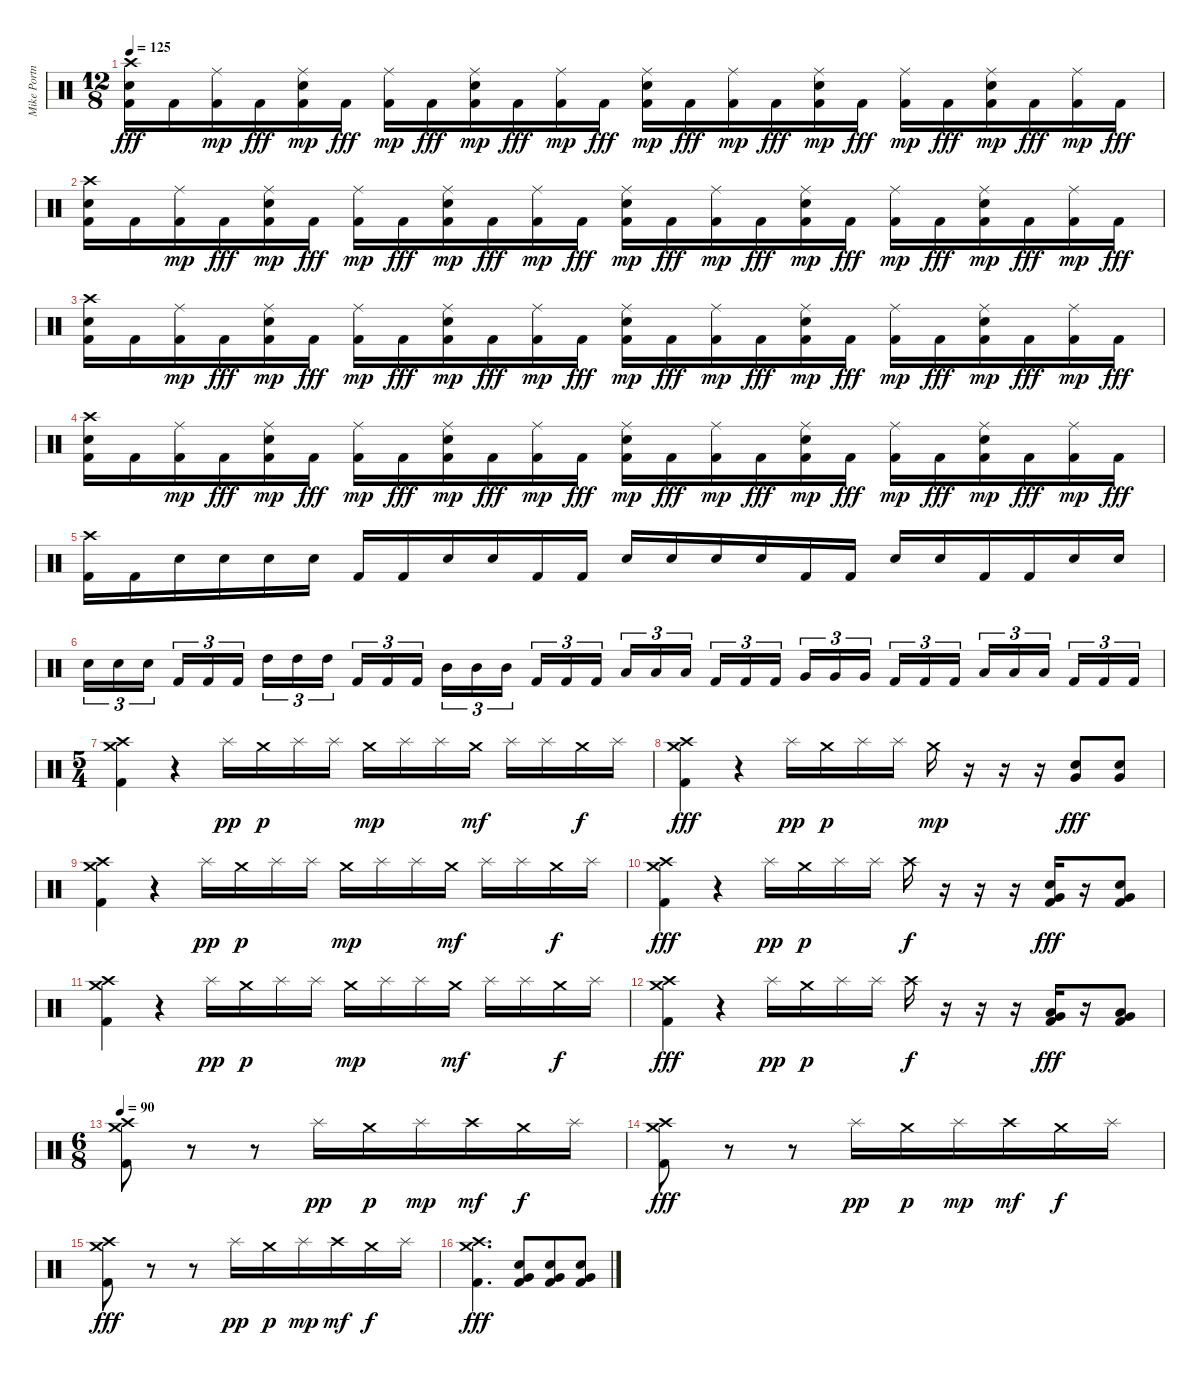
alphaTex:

\track ("Mike Portnoy" "Mike Portn") {instrument percussion}
\staff {score}
\articulation defaults
\ts (12 8)
\tempo 125
\clef neutral
\ks c
("Kick (hit) 2" "Electric Snare (hit)" "Crash high (hit)").16{dy fff} "Kick (hit) 2".16 ("Kick (hit) 2" "Ride (middle)").16{dy mp} "Kick (hit) 2".16{dy fff} ("Kick (hit) 2" "Electric Snare (hit)" "Ride (middle)").16{dy mp} "Kick (hit) 2".16{dy fff} ("Kick (hit) 2" "Ride (middle)").16{dy mp} "Kick (hit) 2".16{dy fff} ("Kick (hit) 2" "Electric Snare (hit)" "Ride (middle)").16{dy mp} "Kick (hit) 2".16{dy fff} ("Kick (hit) 2" "Ride (middle)").16{dy mp} "Kick (hit) 2".16{dy fff} ("Kick (hit) 2" "Electric Snare (hit)" "Ride (middle)").16{dy mp} "Kick (hit) 2".16{dy fff} ("Kick (hit) 2" "Ride (middle)").16{dy mp} "Kick (hit) 2".16{dy fff} ("Kick (hit) 2" "Electric Snare (hit)" "Ride (middle)").16{dy mp} "Kick (hit) 2".16{dy fff} ("Kick (hit) 2" "Ride (middle)").16{dy mp} "Kick (hit) 2".16{dy fff} ("Kick (hit) 2" "Electric Snare (hit)" "Ride (middle)").16{dy mp} "Kick (hit) 2".16{dy fff} ("Kick (hit) 2" "Ride (middle)").16{dy mp} "Kick (hit) 2".16{dy fff} |
("Kick (hit) 2" "Electric Snare (hit)" "Crash high (hit)").16 "Kick (hit) 2".16 ("Kick (hit) 2" "Ride (middle)").16{dy mp} "Kick (hit) 2".16{dy fff} ("Kick (hit) 2" "Electric Snare (hit)" "Ride (middle)").16{dy mp} "Kick (hit) 2".16{dy fff} ("Kick (hit) 2" "Ride (middle)").16{dy mp} "Kick (hit) 2".16{dy fff} ("Kick (hit) 2" "Electric Snare (hit)" "Ride (middle)").16{dy mp} "Kick (hit) 2".16{dy fff} ("Kick (hit) 2" "Ride (middle)").16{dy mp} "Kick (hit) 2".16{dy fff} ("Kick (hit) 2" "Electric Snare (hit)" "Ride (middle)").16{dy mp} "Kick (hit) 2".16{dy fff} ("Kick (hit) 2" "Ride (middle)").16{dy mp} "Kick (hit) 2".16{dy fff} ("Kick (hit) 2" "Electric Snare (hit)" "Ride (middle)").16{dy mp} "Kick (hit) 2".16{dy fff} ("Kick (hit) 2" "Ride (middle)").16{dy mp} "Kick (hit) 2".16{dy fff} ("Kick (hit) 2" "Electric Snare (hit)" "Ride (middle)").16{dy mp} "Kick (hit) 2".16{dy fff} ("Kick (hit) 2" "Ride (middle)").16{dy mp} "Kick (hit) 2".16{dy fff} |
("Kick (hit) 2" "Electric Snare (hit)" "Crash high (hit)").16 "Kick (hit) 2".16 ("Kick (hit) 2" "Ride (middle)").16{dy mp} "Kick (hit) 2".16{dy fff} ("Kick (hit) 2" "Electric Snare (hit)" "Ride (middle)").16{dy mp} "Kick (hit) 2".16{dy fff} ("Kick (hit) 2" "Ride (middle)").16{dy mp} "Kick (hit) 2".16{dy fff} ("Kick (hit) 2" "Electric Snare (hit)" "Ride (middle)").16{dy mp} "Kick (hit) 2".16{dy fff} ("Kick (hit) 2" "Ride (middle)").16{dy mp} "Kick (hit) 2".16{dy fff} ("Kick (hit) 2" "Electric Snare (hit)" "Ride (middle)").16{dy mp} "Kick (hit) 2".16{dy fff} ("Kick (hit) 2" "Ride (middle)").16{dy mp} "Kick (hit) 2".16{dy fff} ("Kick (hit) 2" "Electric Snare (hit)" "Ride (middle)").16{dy mp} "Kick (hit) 2".16{dy fff} ("Kick (hit) 2" "Ride (middle)").16{dy mp} "Kick (hit) 2".16{dy fff} ("Kick (hit) 2" "Electric Snare (hit)" "Ride (middle)").16{dy mp} "Kick (hit) 2".16{dy fff} ("Kick (hit) 2" "Ride (middle)").16{dy mp} "Kick (hit) 2".16{dy fff} |
("Kick (hit) 2" "Electric Snare (hit)" "Crash high (hit)").16 "Kick (hit) 2".16 ("Kick (hit) 2" "Ride (middle)").16{dy mp} "Kick (hit) 2".16{dy fff} ("Kick (hit) 2" "Electric Snare (hit)" "Ride (middle)").16{dy mp} "Kick (hit) 2".16{dy fff} ("Kick (hit) 2" "Ride (middle)").16{dy mp} "Kick (hit) 2".16{dy fff} ("Kick (hit) 2" "Electric Snare (hit)" "Ride (middle)").16{dy mp} "Kick (hit) 2".16{dy fff} ("Kick (hit) 2" "Ride (middle)").16{dy mp} "Kick (hit) 2".16{dy fff} ("Kick (hit) 2" "Electric Snare (hit)" "Ride (middle)").16{dy mp} "Kick (hit) 2".16{dy fff} ("Kick (hit) 2" "Ride (middle)").16{dy mp} "Kick (hit) 2".16{dy fff} ("Kick (hit) 2" "Electric Snare (hit)" "Ride (middle)").16{dy mp} "Kick (hit) 2".16{dy fff} ("Kick (hit) 2" "Ride (middle)").16{dy mp} "Kick (hit) 2".16{dy fff} ("Kick (hit) 2" "Electric Snare (hit)" "Ride (middle)").16{dy mp} "Kick (hit) 2".16{dy fff} ("Kick (hit) 2" "Ride (middle)").16{dy mp} "Kick (hit) 2".16{dy fff} |
("Kick (hit) 2" "Crash high (hit)").16 "Kick (hit) 2".16 "Electric Snare (hit)".16 "Electric Snare (hit)".16 "Electric Snare (hit)".16 "Electric Snare (hit)".16 "Kick (hit) 2".16 "Kick (hit) 2".16 "Electric Snare (hit)".16 "Electric Snare (hit)".16 "Kick (hit) 2".16 "Kick (hit) 2".16 "Electric Snare (hit)".16 "Electric Snare (hit)".16 "Electric Snare (hit)".16 "Electric Snare (hit)".16 "Kick (hit) 2".16 "Kick (hit) 2".16 "Electric Snare (hit)".16 "Electric Snare (hit)".16 "Kick (hit) 2".16 "Kick (hit) 2".16 "Electric Snare (hit)".16 "Electric Snare (hit)".16 |
"Electric Snare (hit)".16{tu (3 2)} "Electric Snare (hit)".16{tu (3 2)} "Electric Snare (hit)".16{tu (3 2) beam splitsecondary} "Kick (hit) 2".16{tu (3 2)} "Kick (hit) 2".16{tu (3 2)} "Kick (hit) 2".16{tu (3 2) beam splitsecondary} "High Tom (hit)".16{tu (3 2)} "High Tom (hit)".16{tu (3 2)} "High Tom (hit)".16{tu (3 2)} "Kick (hit) 2".16{tu (3 2)} "Kick (hit) 2".16{tu (3 2)} "Kick (hit) 2".16{tu (3 2) beam splitsecondary} "Mid Tom (hit)".16{tu (3 2)} "Mid Tom (hit)".16{tu (3 2)} "Mid Tom (hit)".16{tu (3 2) beam splitsecondary} "Kick (hit) 2".16{tu (3 2)} "Kick (hit) 2".16{tu (3 2)} "Kick (hit) 2".16{tu (3 2)} "Low Tom (hit)".16{tu (3 2)} "Low Tom (hit)".16{tu (3 2)} "Low Tom (hit)".16{tu (3 2) beam splitsecondary} "Kick (hit) 2".16{tu (3 2)} "Kick (hit) 2".16{tu (3 2)} "Kick (hit) 2".16{tu (3 2) beam splitsecondary} "Very Low Tom (hit)".16{tu (3 2)} "Very Low Tom (hit)".16{tu (3 2)} "Very Low Tom (hit)".16{tu (3 2)} "Kick (hit) 2".16{tu (3 2)} "Kick (hit) 2".16{tu (3 2)} "Kick (hit) 2".16{tu (3 2) beam splitsecondary} "Low Floor Tom (hit)".16{tu (3 2)} "Low Floor Tom (hit)".16{tu (3 2)} "Low Floor Tom (hit)".16{tu (3 2) beam splitsecondary} "Kick (hit) 2".16{tu (3 2)} "Kick (hit) 2".16{tu (3 2)} "Kick (hit) 2".16{tu (3 2)} |
\ts (5 4)
("Kick (hit) 2" "Crash medium (hit)" "Crash high (hit)").4 r.4 "Splash (hit)".16{dy pp} "Crash medium (hit)".16{dy p} "Splash (hit)".16 "Splash (hit)".16 "Crash medium (hit)".16{dy mp} "Splash (hit)".16 "Splash (hit)".16 "Crash medium (hit)".16{dy mf} "Splash (hit)".16 "Splash (hit)".16 "Crash medium (hit)".16{dy f} "Splash (hit)".16 |
("Kick (hit) 2" "Crash medium (hit)" "Crash high (hit)").4{dy fff} r.4 "Splash (hit)".16{dy pp} "Crash medium (hit)".16{dy p} "Splash (hit)".16 "Splash (hit)".16 "Crash medium (hit)".16{dy mp} r.16 r.16 r.16 ("Electric Snare (hit)" "Very Low Tom (hit)").8{dy fff} ("Electric Snare (hit)" "Very Low Tom (hit)").8 |
("Kick (hit) 2" "Crash medium (hit)" "Crash high (hit)").4 r.4 "Splash (hit)".16{dy pp} "Crash medium (hit)".16{dy p} "Splash (hit)".16 "Splash (hit)".16 "Crash medium (hit)".16{dy mp} "Splash (hit)".16 "Splash (hit)".16 "Crash medium (hit)".16{dy mf} "Splash (hit)".16 "Splash (hit)".16 "Crash medium (hit)".16{dy f} "Splash (hit)".16 |
("Kick (hit) 2" "Crash medium (hit)" "Crash high (hit)").4{dy fff} r.4 "Splash (hit)".16{dy pp} "Crash medium (hit)".16{dy p} "Splash (hit)".16 "Splash (hit)".16 "Crash high (hit)".16{dy f} r.16 r.16 r.16 ("Electric Snare (hit)" "Very Low Tom (hit)" "Kick (hit) 2").16{dy fff} r.16 ("Electric Snare (hit)" "Very Low Tom (hit)" "Kick (hit) 2").8 |
("Kick (hit) 2" "Crash medium (hit)" "Crash high (hit)").4 r.4 "Splash (hit)".16{dy pp} "Crash medium (hit)".16{dy p} "Splash (hit)".16 "Splash (hit)".16 "Crash medium (hit)".16{dy mp} "Splash (hit)".16 "Splash (hit)".16 "Crash medium (hit)".16{dy mf} "Splash (hit)".16 "Splash (hit)".16 "Crash medium (hit)".16{dy f} "Splash (hit)".16 |
("Kick (hit) 2" "Crash medium (hit)" "Crash high (hit)").4{dy fff} r.4 "Splash (hit)".16{dy pp} "Crash medium (hit)".16{dy p} "Splash (hit)".16 "Splash (hit)".16 "Crash high (hit)".16{dy f} r.16 r.16 r.16 ("Low Floor Tom (hit)" "Very Low Tom (hit)" "Kick (hit) 2").16{dy fff} r.16 ("Low Floor Tom (hit)" "Very Low Tom (hit)" "Kick (hit) 2").8 |
\ts (6 8)
\tempo 90
("Kick (hit) 2" "Crash medium (hit)" "Crash high (hit)").8 r.8 r.8 "Splash (hit)".16{dy pp} "Crash medium (hit)".16{dy p} "Splash (hit)".16{dy mp} "Crash high (hit)".16{dy mf} "Crash medium (hit)".16{dy f} "Splash (hit)".16 |
("Kick (hit) 2" "Crash medium (hit)" "Crash high (hit)").8{dy fff} r.8 r.8 "Splash (hit)".16{dy pp} "Crash medium (hit)".16{dy p} "Splash (hit)".16{dy mp} "Crash high (hit)".16{dy mf} "Crash medium (hit)".16{dy f} "Splash (hit)".16 |
("Kick (hit) 2" "Crash medium (hit)" "Crash high (hit)").8{dy fff} r.8 r.8 "Splash (hit)".16{dy pp} "Crash medium (hit)".16{dy p} "Splash (hit)".16{dy mp} "Crash high (hit)".16{dy mf} "Crash medium (hit)".16{dy f} "Splash (hit)".16 |
("Kick (hit) 2" "Crash high (hit)" "Crash medium (hit)").4{d dy fff} ("Kick (hit) 2" "Electric Snare (hit)" "Very Low Tom (hit)").8 ("Kick (hit) 2" "Electric Snare (hit)" "Very Low Tom (hit)").8 ("Kick (hit) 2" "Electric Snare (hit)" "Very Low Tom (hit)").8
